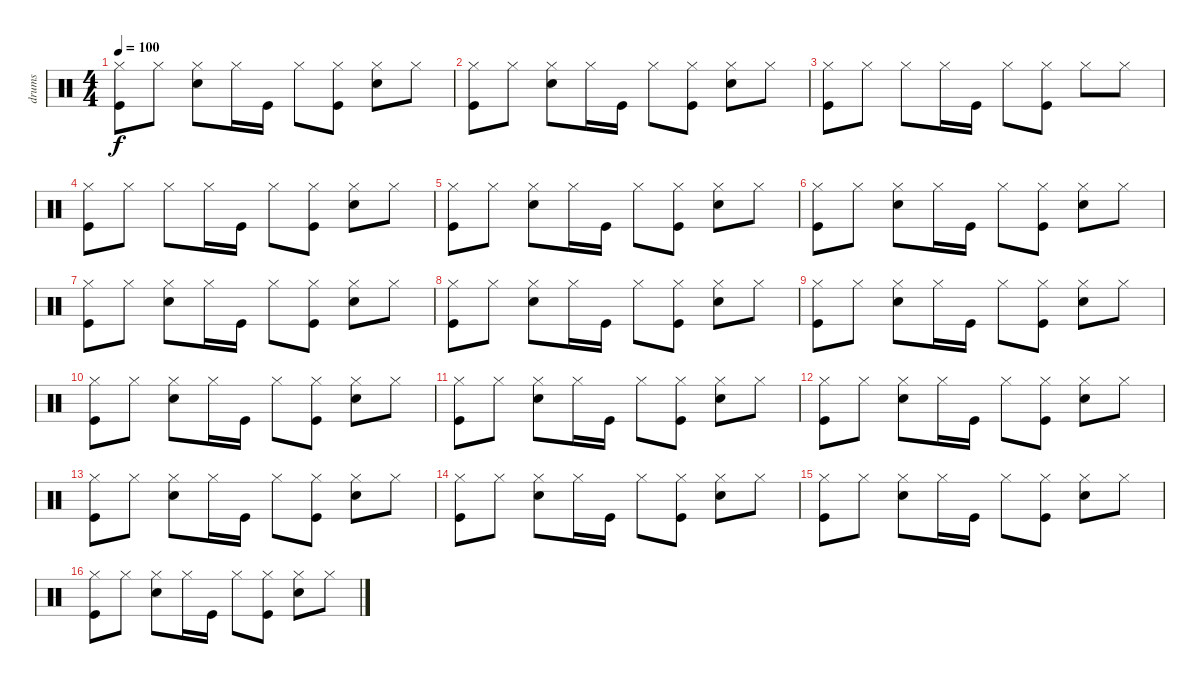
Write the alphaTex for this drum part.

\track ("drums" "drums") {instrument percussion}
\staff {score}
\articulation defaults
\ts (4 4)
\tempo 100
\clef neutral
\ks c
("Kick (hit)" "Hi-Hat (closed)").8{dy f} "Hi-Hat (closed)".8 ("Snare (hit) 2" "Hi-Hat (closed)").8 "Hi-Hat (closed)".16 "Kick (hit)".16 "Hi-Hat (closed)".8 ("Kick (hit)" "Hi-Hat (closed)").8 ("Snare (hit) 2" "Hi-Hat (closed)").8 "Hi-Hat (closed)".8 |
("Kick (hit)" "Hi-Hat (closed)").8 "Hi-Hat (closed)".8 ("Snare (hit) 2" "Hi-Hat (closed)").8 "Hi-Hat (closed)".16 "Kick (hit)".16 "Hi-Hat (closed)".8 ("Kick (hit)" "Hi-Hat (closed)").8 ("Snare (hit) 2" "Hi-Hat (closed)").8 "Hi-Hat (closed)".8 |
("Kick (hit)" "Hi-Hat (closed)").8 "Hi-Hat (closed)".8 "Hi-Hat (closed)".8 "Hi-Hat (closed)".16 "Kick (hit)".16 "Hi-Hat (closed)".8 ("Kick (hit)" "Hi-Hat (closed)").8 "Hi-Hat (closed)".8 "Hi-Hat (closed)".8 |
("Kick (hit)" "Hi-Hat (closed)").8 "Hi-Hat (closed)".8 "Hi-Hat (closed)".8 "Hi-Hat (closed)".16 "Kick (hit)".16 "Hi-Hat (closed)".8 ("Kick (hit)" "Hi-Hat (closed)").8 ("Snare (hit) 2" "Hi-Hat (closed)").8 "Hi-Hat (closed)".8 |
("Kick (hit)" "Hi-Hat (closed)").8 "Hi-Hat (closed)".8 ("Snare (hit) 2" "Hi-Hat (closed)").8 "Hi-Hat (closed)".16 "Kick (hit)".16 "Hi-Hat (closed)".8 ("Kick (hit)" "Hi-Hat (closed)").8 ("Snare (hit) 2" "Hi-Hat (closed)").8 "Hi-Hat (closed)".8 |
("Kick (hit)" "Hi-Hat (closed)").8 "Hi-Hat (closed)".8 ("Snare (hit) 2" "Hi-Hat (closed)").8 "Hi-Hat (closed)".16 "Kick (hit)".16 "Hi-Hat (closed)".8 ("Kick (hit)" "Hi-Hat (closed)").8 ("Snare (hit) 2" "Hi-Hat (closed)").8 "Hi-Hat (closed)".8 |
("Kick (hit)" "Hi-Hat (closed)").8 "Hi-Hat (closed)".8 ("Snare (hit) 2" "Hi-Hat (closed)").8 "Hi-Hat (closed)".16 "Kick (hit)".16 "Hi-Hat (closed)".8 ("Kick (hit)" "Hi-Hat (closed)").8 ("Snare (hit) 2" "Hi-Hat (closed)").8 "Hi-Hat (closed)".8 |
("Kick (hit)" "Hi-Hat (closed)").8 "Hi-Hat (closed)".8 ("Snare (hit) 2" "Hi-Hat (closed)").8 "Hi-Hat (closed)".16 "Kick (hit)".16 "Hi-Hat (closed)".8 ("Kick (hit)" "Hi-Hat (closed)").8 ("Snare (hit) 2" "Hi-Hat (closed)").8 "Hi-Hat (closed)".8 |
("Kick (hit)" "Hi-Hat (closed)").8 "Hi-Hat (closed)".8 ("Snare (hit) 2" "Hi-Hat (closed)").8 "Hi-Hat (closed)".16 "Kick (hit)".16 "Hi-Hat (closed)".8 ("Kick (hit)" "Hi-Hat (closed)").8 ("Snare (hit) 2" "Hi-Hat (closed)").8 "Hi-Hat (closed)".8 |
("Kick (hit)" "Hi-Hat (closed)").8 "Hi-Hat (closed)".8 ("Snare (hit) 2" "Hi-Hat (closed)").8 "Hi-Hat (closed)".16 "Kick (hit)".16 "Hi-Hat (closed)".8 ("Kick (hit)" "Hi-Hat (closed)").8 ("Snare (hit) 2" "Hi-Hat (closed)").8 "Hi-Hat (closed)".8 |
("Kick (hit)" "Hi-Hat (closed)").8 "Hi-Hat (closed)".8 ("Snare (hit) 2" "Hi-Hat (closed)").8 "Hi-Hat (closed)".16 "Kick (hit)".16 "Hi-Hat (closed)".8 ("Kick (hit)" "Hi-Hat (closed)").8 ("Snare (hit) 2" "Hi-Hat (closed)").8 "Hi-Hat (closed)".8 |
("Kick (hit)" "Hi-Hat (closed)").8 "Hi-Hat (closed)".8 ("Snare (hit) 2" "Hi-Hat (closed)").8 "Hi-Hat (closed)".16 "Kick (hit)".16 "Hi-Hat (closed)".8 ("Kick (hit)" "Hi-Hat (closed)").8 ("Snare (hit) 2" "Hi-Hat (closed)").8 "Hi-Hat (closed)".8 |
("Kick (hit)" "Hi-Hat (closed)").8 "Hi-Hat (closed)".8 ("Snare (hit) 2" "Hi-Hat (closed)").8 "Hi-Hat (closed)".16 "Kick (hit)".16 "Hi-Hat (closed)".8 ("Kick (hit)" "Hi-Hat (closed)").8 ("Snare (hit) 2" "Hi-Hat (closed)").8 "Hi-Hat (closed)".8 |
("Kick (hit)" "Hi-Hat (closed)").8 "Hi-Hat (closed)".8 ("Snare (hit) 2" "Hi-Hat (closed)").8 "Hi-Hat (closed)".16 "Kick (hit)".16 "Hi-Hat (closed)".8 ("Kick (hit)" "Hi-Hat (closed)").8 ("Snare (hit) 2" "Hi-Hat (closed)").8 "Hi-Hat (closed)".8 |
("Kick (hit)" "Hi-Hat (closed)").8 "Hi-Hat (closed)".8 ("Snare (hit) 2" "Hi-Hat (closed)").8 "Hi-Hat (closed)".16 "Kick (hit)".16 "Hi-Hat (closed)".8 ("Kick (hit)" "Hi-Hat (closed)").8 ("Snare (hit) 2" "Hi-Hat (closed)").8 "Hi-Hat (closed)".8 |
("Kick (hit)" "Hi-Hat (closed)").8 "Hi-Hat (closed)".8 ("Snare (hit) 2" "Hi-Hat (closed)").8 "Hi-Hat (closed)".16 "Kick (hit)".16 "Hi-Hat (closed)".8 ("Kick (hit)" "Hi-Hat (closed)").8 ("Snare (hit) 2" "Hi-Hat (closed)").8 "Hi-Hat (closed)".8
